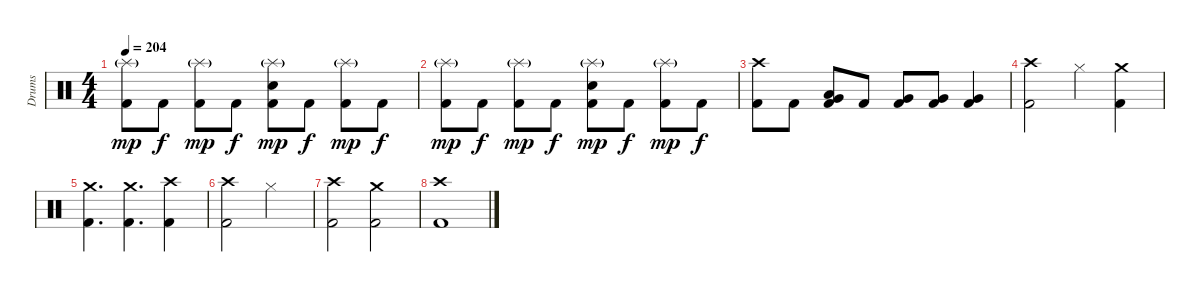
\track ("Drums" "Drums") {instrument percussion}
\staff {score}
\articulation defaults
\ts (4 4)
\tempo 204
\clef neutral
\ks c
("Splash (hit)"{g} "Kick (hit) 2").8{dy mp} "Kick (hit) 2".8{dy f} ("Splash (hit)"{g} "Kick (hit) 2").8{dy mp} "Kick (hit) 2".8{dy f} ("Splash (hit)"{g} "Snare (hit) 2" "Kick (hit) 2").8{dy mp} "Kick (hit) 2".8{dy f} ("Splash (hit)"{g} "Kick (hit) 2").8{dy mp} "Kick (hit) 2".8{dy f} |
("Splash (hit)"{g} "Kick (hit) 2").8{dy mp} "Kick (hit) 2".8{dy f} ("Splash (hit)"{g} "Kick (hit) 2").8{dy mp} "Kick (hit) 2".8{dy f} ("Splash (hit)"{g} "Snare (hit) 2" "Kick (hit) 2").8{dy mp} "Kick (hit) 2".8{dy f} ("Splash (hit)"{g} "Kick (hit) 2").8{dy mp} "Kick (hit) 2".8{dy f} |
("Crash high (hit)" "Kick (hit) 2").8 "Kick (hit) 2".8 ("Very Low Tom (hit)" "Low Floor Tom (hit)" "Kick (hit) 2").8 "Kick (hit) 2".8 ("Very Low Tom (hit)" "Kick (hit) 2").8 ("Very Low Tom (hit)" "Kick (hit) 2").8 ("Very Low Tom (hit)" "Kick (hit) 2").4 |
("Crash high (hit)" "Kick (hit) 2").2 "Hi-Hat (closed)".4 ("Crash medium (hit)" "Kick (hit) 2").4 |
("Crash medium (hit)" "Kick (hit) 2").4{d} ("Crash medium (hit)" "Kick (hit) 2").4{d} ("Crash high (hit)" "Kick (hit) 2").4 |
("Crash high (hit)" "Kick (hit) 2").2 "Hi-Hat (closed)".2 |
("Crash high (hit)" "Kick (hit) 2").2 ("Crash medium (hit)" "Kick (hit) 2").2 |
("Crash high (hit)" "Kick (hit) 2").1
